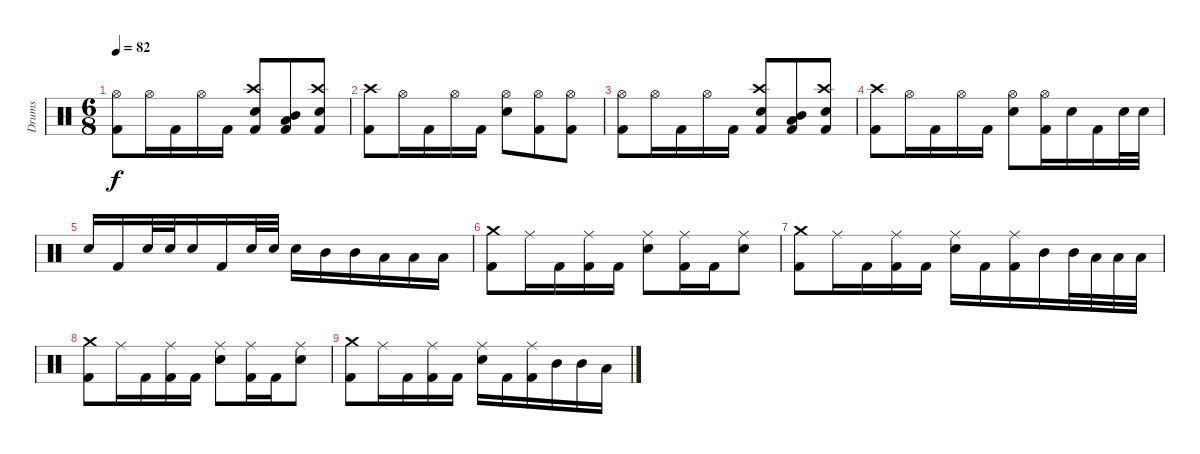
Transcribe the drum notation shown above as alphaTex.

\track ("Drums" "Drums") {instrument percussion}
\staff {score}
\articulation defaults
\ts (6 8)
\tempo 82
\clef neutral
\ks c
("Hi-Hat (open)" "Kick (hit) 2").8{dy f} "Hi-Hat (open)".16 "Kick (hit) 2".16 "Hi-Hat (open)".16 "Kick (hit) 2".16 ("Crash high (hit)" "Electric Snare (hit)" "Kick (hit) 2").8 ("Mid Tom (hit)" "Low Tom (hit)" "Kick (hit) 2").8 ("Crash high (hit)" "Electric Snare (hit)" "Kick (hit) 2").8 |
("Crash high (hit)" "Kick (hit) 2").8 "Hi-Hat (open)".16 "Kick (hit) 2".16 "Hi-Hat (open)".16 "Kick (hit) 2".16 ("Hi-Hat (open)" "Electric Snare (hit)").8 ("Hi-Hat (open)" "Kick (hit) 2").8 ("Hi-Hat (open)" "Kick (hit) 2").8 |
("Hi-Hat (open)" "Kick (hit) 2").8 "Hi-Hat (open)".16 "Kick (hit) 2".16 "Hi-Hat (open)".16 "Kick (hit) 2".16 ("Crash high (hit)" "Electric Snare (hit)" "Kick (hit) 2").8 ("Mid Tom (hit)" "Low Tom (hit)" "Kick (hit) 2").8 ("Crash high (hit)" "Electric Snare (hit)" "Kick (hit) 2").8 |
("Crash high (hit)" "Kick (hit) 2").8 "Hi-Hat (open)".16 "Kick (hit) 2".16 "Hi-Hat (open)".16 "Kick (hit) 2".16 ("Hi-Hat (open)" "Electric Snare (hit)").8 ("Hi-Hat (open)" "Kick (hit) 2").16 "Electric Snare (hit)".16 "Kick (hit) 2".16 "Electric Snare (hit)".32 "Electric Snare (hit)".32 |
"Electric Snare (hit)".16 "Kick (hit) 2".16 "Electric Snare (hit)".32 "Electric Snare (hit)".32 "Electric Snare (hit)".16 "Kick (hit) 2".16 "Electric Snare (hit)".32 "Electric Snare (hit)".32 "Electric Snare (hit)".16 "Mid Tom (hit)".16 "Mid Tom (hit)".16 "Low Tom (hit)".16 "Low Tom (hit)".16 "Low Tom (hit)".16 |
("Crash medium (hit)" "Kick (hit) 2").8 "Ride (middle)".16 "Kick (hit) 2".16 ("Ride (middle)" "Kick (hit) 2").16 "Kick (hit) 2".16 ("Ride (middle)" "Electric Snare (hit)").8 ("Ride (middle)" "Kick (hit) 2").16 "Kick (hit) 2".16 ("Ride (middle)" "Electric Snare (hit)").8 |
("Crash medium (hit)" "Kick (hit) 2").8 "Ride (middle)".16 "Kick (hit) 2".16 ("Ride (middle)" "Kick (hit) 2").16 "Kick (hit) 2".16 ("Ride (middle)" "Electric Snare (hit)").16 "Kick (hit) 2".16 ("Ride (middle)" "Kick (hit) 2").16 "Mid Tom (hit)".16 "Mid Tom (hit)".32 "Low Tom (hit)".32 "Low Tom (hit)".32 "Low Tom (hit)".32 |
("Crash medium (hit)" "Kick (hit) 2").8 "Ride (middle)".16 "Kick (hit) 2".16 ("Ride (middle)" "Kick (hit) 2").16 "Kick (hit) 2".16 ("Ride (middle)" "Electric Snare (hit)").8 ("Ride (middle)" "Kick (hit) 2").16 "Kick (hit) 2".16 ("Ride (middle)" "Electric Snare (hit)").8 |
("Crash medium (hit)" "Kick (hit) 2").8 "Ride (middle)".16 "Kick (hit) 2".16 ("Ride (middle)" "Kick (hit) 2").16 "Kick (hit) 2".16 ("Ride (middle)" "Electric Snare (hit)").16 "Kick (hit) 2".16 ("Ride (middle)" "Kick (hit) 2").16 "Mid Tom (hit)".16 "Mid Tom (hit)".16 "Low Tom (hit)".16
